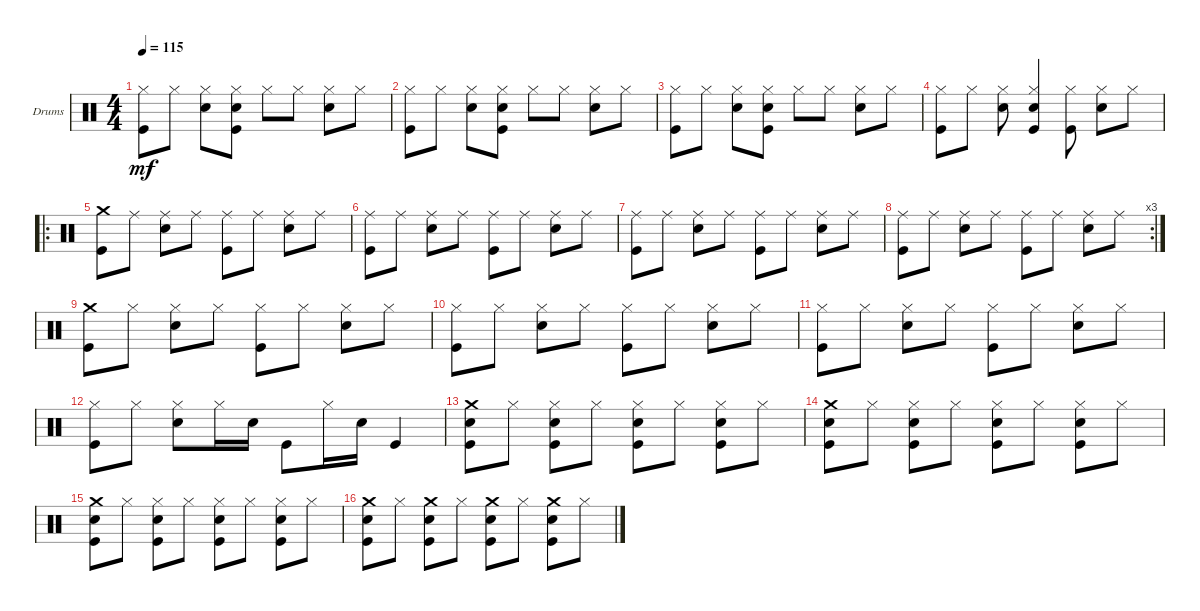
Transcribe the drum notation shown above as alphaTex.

\defaultSystemsLayout 4
\bracketExtendMode groupsimilarinstruments
\firstSystemTrackNameOrientation horizontal
\otherSystemsTrackNameOrientation horizontal
\track ("Drumkit" "Drums") {instrument percussion}
\staff {score}
\articulation defaults
\ts (4 4)
\tempo 115
\clef neutral
\ks c
("Kick (hit)" "Hi-Hat (closed)").8{dy mf} "Hi-Hat (closed)".8 ("Snare (hit) 2" "Hi-Hat (closed)").8 ("Kick (hit)" "Snare (hit) 2" "Hi-Hat (closed)").8 "Hi-Hat (closed)".8 "Hi-Hat (closed)".8 ("Hi-Hat (closed)" "Snare (hit) 2").8 "Hi-Hat (closed)".8 |
("Kick (hit)" "Hi-Hat (closed)").8 "Hi-Hat (closed)".8 ("Snare (hit) 2" "Hi-Hat (closed)").8 ("Kick (hit)" "Snare (hit) 2" "Hi-Hat (closed)").8 "Hi-Hat (closed)".8 "Hi-Hat (closed)".8 ("Hi-Hat (closed)" "Snare (hit) 2").8 "Hi-Hat (closed)".8 |
("Kick (hit)" "Hi-Hat (closed)").8 "Hi-Hat (closed)".8 ("Snare (hit) 2" "Hi-Hat (closed)").8 ("Kick (hit)" "Snare (hit) 2" "Hi-Hat (closed)").8 "Hi-Hat (closed)".8 "Hi-Hat (closed)".8 ("Hi-Hat (closed)" "Snare (hit) 2").8 "Hi-Hat (closed)".8 |
("Kick (hit)" "Hi-Hat (closed)").8 "Hi-Hat (closed)".8 ("Snare (hit) 2" "Hi-Hat (closed)").8 ("Kick (hit)" "Snare (hit) 2" "Hi-Hat (closed)").4 ("Hi-Hat (closed)" "Kick (hit)").8 ("Hi-Hat (closed)" "Snare (hit) 2").8 "Hi-Hat (closed)".8 |
\ro
("Kick (hit)" "Crash medium (hit)").8 "Ride (middle)".8 ("Snare (hit) 2" "Ride (middle)").8 "Ride (middle)".8 ("Ride (middle)" "Kick (hit)").8 "Ride (middle)".8 ("Snare (hit) 2" "Ride (middle)").8 "Ride (middle)".8 |
("Kick (hit)" "Ride (middle)").8 "Ride (middle)".8 ("Snare (hit) 2" "Ride (middle)").8 "Ride (middle)".8 ("Ride (middle)" "Kick (hit)").8 "Ride (middle)".8 ("Snare (hit) 2" "Ride (middle)").8 "Ride (middle)".8 |
("Kick (hit)" "Ride (middle)").8 "Ride (middle)".8 ("Snare (hit) 2" "Ride (middle)").8 "Ride (middle)".8 ("Ride (middle)" "Kick (hit)").8 "Ride (middle)".8 ("Snare (hit) 2" "Ride (middle)").8 "Ride (middle)".8 |
\rc 3
("Kick (hit)" "Ride (middle)").8 "Ride (middle)".8 ("Snare (hit) 2" "Ride (middle)").8 "Ride (middle)".8 ("Ride (middle)" "Kick (hit)").8 "Ride (middle)".8 ("Snare (hit) 2" "Ride (middle)").8 "Ride (middle)".8 |
("Kick (hit)" "Crash medium (hit)").8 "Hi-Hat (closed)".8 ("Snare (hit) 2" "Hi-Hat (closed)").8 "Hi-Hat (closed)".8 ("Kick (hit)" "Hi-Hat (closed)").8 "Hi-Hat (closed)".8 ("Snare (hit) 2" "Hi-Hat (closed)").8 "Hi-Hat (closed)".8 |
("Kick (hit)" "Hi-Hat (closed)").8 "Hi-Hat (closed)".8 ("Snare (hit) 2" "Hi-Hat (closed)").8 "Hi-Hat (closed)".8 ("Kick (hit)" "Hi-Hat (closed)").8 "Hi-Hat (closed)".8 ("Snare (hit) 2" "Hi-Hat (closed)").8 "Hi-Hat (closed)".8 |
("Kick (hit)" "Hi-Hat (closed)").8 "Hi-Hat (closed)".8 ("Snare (hit) 2" "Hi-Hat (closed)").8 "Hi-Hat (closed)".8 ("Kick (hit)" "Hi-Hat (closed)").8 "Hi-Hat (closed)".8 ("Snare (hit) 2" "Hi-Hat (closed)").8 "Hi-Hat (closed)".8 |
("Kick (hit)" "Hi-Hat (closed)").8 "Hi-Hat (closed)".8 ("Snare (hit) 2" "Hi-Hat (closed)").8 "Hi-Hat (closed)".16 "Snare (hit) 2".16 "Kick (hit)".8 "Hi-Hat (closed)".16 "Snare (hit) 2".16 "Kick (hit)".4 |
("Kick (hit)" "Snare (hit) 2" "Crash medium (hit)").8 "Hi-Hat (closed)".8 ("Kick (hit)" "Snare (hit) 2" "Hi-Hat (closed)").8 "Hi-Hat (closed)".8 ("Kick (hit)" "Snare (hit) 2" "Hi-Hat (closed)").8 "Hi-Hat (closed)".8 ("Kick (hit)" "Snare (hit) 2" "Hi-Hat (closed)").8 "Hi-Hat (closed)".8 |
("Kick (hit)" "Snare (hit) 2" "Crash medium (hit)").8 "Hi-Hat (closed)".8 ("Kick (hit)" "Snare (hit) 2" "Hi-Hat (closed)").8 "Hi-Hat (closed)".8 ("Kick (hit)" "Snare (hit) 2" "Hi-Hat (closed)").8 "Hi-Hat (closed)".8 ("Kick (hit)" "Snare (hit) 2" "Hi-Hat (closed)").8 "Hi-Hat (closed)".8 |
("Kick (hit)" "Snare (hit) 2" "Crash medium (hit)").8 "Hi-Hat (closed)".8 ("Kick (hit)" "Snare (hit) 2" "Hi-Hat (closed)").8 "Hi-Hat (closed)".8 ("Kick (hit)" "Snare (hit) 2" "Hi-Hat (closed)").8 "Hi-Hat (closed)".8 ("Kick (hit)" "Snare (hit) 2" "Hi-Hat (closed)").8 "Hi-Hat (closed)".8 |
("Kick (hit)" "Snare (hit) 2" "Crash medium (hit)").8 "Hi-Hat (closed)".8 ("Kick (hit)" "Snare (hit) 2" "Crash medium (hit)").8 "Hi-Hat (closed)".8 ("Kick (hit)" "Snare (hit) 2" "Crash medium (hit)").8 "Hi-Hat (closed)".8 ("Kick (hit)" "Snare (hit) 2" "Crash medium (hit)").8 "Hi-Hat (closed)".8
